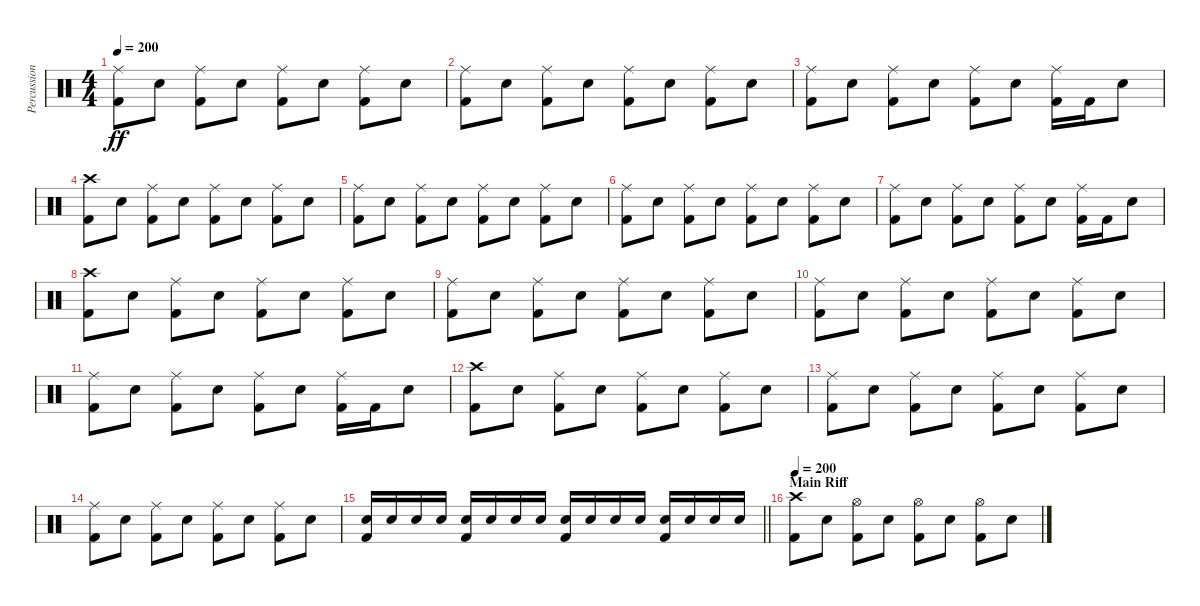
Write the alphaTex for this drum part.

\track ("Percussion" "Percussion") {instrument percussion}
\staff {score}
\articulation defaults
\ts (4 4)
\tempo 200
\clef neutral
\ks c
("Ride (middle)" "Kick (hit) 2").8{dy ff} "Snare (hit) 2".8 ("Ride (middle)" "Kick (hit) 2").8 "Snare (hit) 2".8 ("Ride (middle)" "Kick (hit) 2").8 "Snare (hit) 2".8 ("Ride (middle)" "Kick (hit) 2").8 "Snare (hit) 2".8 |
("Ride (middle)" "Kick (hit) 2").8 "Snare (hit) 2".8 ("Ride (middle)" "Kick (hit) 2").8 "Snare (hit) 2".8 ("Ride (middle)" "Kick (hit) 2").8 "Snare (hit) 2".8 ("Ride (middle)" "Kick (hit) 2").8 "Snare (hit) 2".8 |
("Ride (middle)" "Kick (hit) 2").8 "Snare (hit) 2".8 ("Ride (middle)" "Kick (hit) 2").8 "Snare (hit) 2".8 ("Ride (middle)" "Kick (hit) 2").8 "Snare (hit) 2".8 ("Ride (middle)" "Kick (hit) 2").16 "Kick (hit) 2".16 "Snare (hit) 2".8 |
("Crash high (hit)" "Kick (hit) 2").8 "Snare (hit) 2".8 ("Ride (middle)" "Kick (hit) 2").8 "Snare (hit) 2".8 ("Ride (middle)" "Kick (hit) 2").8 "Snare (hit) 2".8 ("Ride (middle)" "Kick (hit) 2").8 "Snare (hit) 2".8 |
("Ride (middle)" "Kick (hit) 2").8 "Snare (hit) 2".8 ("Ride (middle)" "Kick (hit) 2").8 "Snare (hit) 2".8 ("Ride (middle)" "Kick (hit) 2").8 "Snare (hit) 2".8 ("Ride (middle)" "Kick (hit) 2").8 "Snare (hit) 2".8 |
("Ride (middle)" "Kick (hit) 2").8 "Snare (hit) 2".8 ("Ride (middle)" "Kick (hit) 2").8 "Snare (hit) 2".8 ("Ride (middle)" "Kick (hit) 2").8 "Snare (hit) 2".8 ("Ride (middle)" "Kick (hit) 2").8 "Snare (hit) 2".8 |
("Ride (middle)" "Kick (hit) 2").8 "Snare (hit) 2".8 ("Ride (middle)" "Kick (hit) 2").8 "Snare (hit) 2".8 ("Ride (middle)" "Kick (hit) 2").8 "Snare (hit) 2".8 ("Ride (middle)" "Kick (hit) 2").16 "Kick (hit) 2".16 "Snare (hit) 2".8 |
("Crash high (hit)" "Kick (hit) 2").8 "Snare (hit) 2".8 ("Ride (middle)" "Kick (hit) 2").8 "Snare (hit) 2".8 ("Ride (middle)" "Kick (hit) 2").8 "Snare (hit) 2".8 ("Ride (middle)" "Kick (hit) 2").8 "Snare (hit) 2".8 |
("Ride (middle)" "Kick (hit) 2").8 "Snare (hit) 2".8 ("Ride (middle)" "Kick (hit) 2").8 "Snare (hit) 2".8 ("Ride (middle)" "Kick (hit) 2").8 "Snare (hit) 2".8 ("Ride (middle)" "Kick (hit) 2").8 "Snare (hit) 2".8 |
("Ride (middle)" "Kick (hit) 2").8 "Snare (hit) 2".8 ("Ride (middle)" "Kick (hit) 2").8 "Snare (hit) 2".8 ("Ride (middle)" "Kick (hit) 2").8 "Snare (hit) 2".8 ("Ride (middle)" "Kick (hit) 2").8 "Snare (hit) 2".8 |
("Ride (middle)" "Kick (hit) 2").8 "Snare (hit) 2".8 ("Ride (middle)" "Kick (hit) 2").8 "Snare (hit) 2".8 ("Ride (middle)" "Kick (hit) 2").8 "Snare (hit) 2".8 ("Ride (middle)" "Kick (hit) 2").16 "Kick (hit) 2".16 "Snare (hit) 2".8 |
("Crash high (hit)" "Kick (hit) 2").8 "Snare (hit) 2".8 ("Ride (middle)" "Kick (hit) 2").8 "Snare (hit) 2".8 ("Ride (middle)" "Kick (hit) 2").8 "Snare (hit) 2".8 ("Ride (middle)" "Kick (hit) 2").8 "Snare (hit) 2".8 |
("Ride (middle)" "Kick (hit) 2").8 "Snare (hit) 2".8 ("Ride (middle)" "Kick (hit) 2").8 "Snare (hit) 2".8 ("Ride (middle)" "Kick (hit) 2").8 "Snare (hit) 2".8 ("Ride (middle)" "Kick (hit) 2").8 "Snare (hit) 2".8 |
("Ride (middle)" "Kick (hit) 2").8 "Snare (hit) 2".8 ("Ride (middle)" "Kick (hit) 2").8 "Snare (hit) 2".8 ("Ride (middle)" "Kick (hit) 2").8 "Snare (hit) 2".8 ("Ride (middle)" "Kick (hit) 2").8 "Snare (hit) 2".8 |
\barLineRight lightlight
("Snare (hit) 2" "Kick (hit) 2").16 "Snare (hit) 2".16 "Snare (hit) 2".16 "Snare (hit) 2".16 ("Snare (hit) 2" "Kick (hit) 2").16 "Snare (hit) 2".16 "Snare (hit) 2".16 "Snare (hit) 2".16 ("Snare (hit) 2" "Kick (hit) 2").16 "Snare (hit) 2".16 "Snare (hit) 2".16 "Snare (hit) 2".16 ("Snare (hit) 2" "Kick (hit) 2").16 "Snare (hit) 2".16 "Snare (hit) 2".16 "Snare (hit) 2".16 |
\section ("" "Main Riff")
\tempo 200
("Crash high (hit)" "Kick (hit) 2").8 "Snare (hit) 2".8 ("Hi-Hat (open)" "Kick (hit) 2").8 "Snare (hit) 2".8 ("Hi-Hat (open)" "Kick (hit) 2").8 "Snare (hit) 2".8 ("Hi-Hat (open)" "Kick (hit) 2").8 "Snare (hit) 2".8
